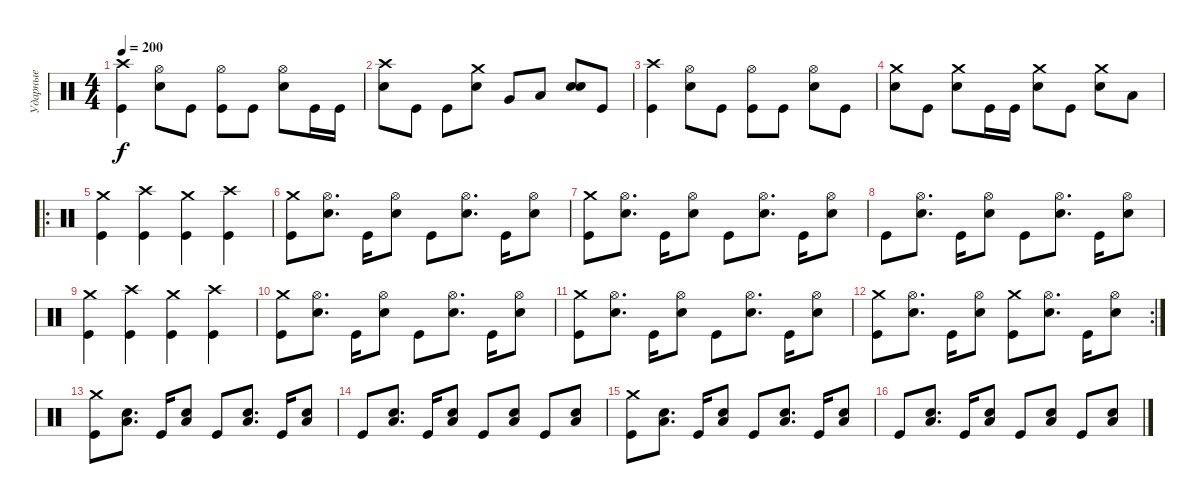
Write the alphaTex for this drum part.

\track ("Ударные" "Ударные") {instrument percussion}
\staff {score}
\articulation defaults
\ts (4 4)
\tempo 200
\clef neutral
\ks c
("Crash high (hit)" "Kick (hit)").4{dy f} ("Hi-Hat (open)" "Snare (hit) 2").8 "Kick (hit)".8 ("Hi-Hat (open)" "Kick (hit)").8 "Kick (hit)".8 ("Hi-Hat (open)" "Snare (hit) 2").8 "Kick (hit)".16 "Kick (hit)".16 |
("Crash high (hit)" "Snare (hit) 2").8 "Kick (hit)".8 "Kick (hit)".8 ("Crash medium (hit)" "Snare (hit) 2").8 "Very Low Tom (hit)".8 "Low Floor Tom (hit)".8 ("Snare (hit) 2" "Snare (hit) 2").8{bd 480} "Kick (hit)".8 |
("Crash high (hit)" "Kick (hit)").4 ("Hi-Hat (open)" "Snare (hit) 2").8 "Kick (hit)".8 ("Hi-Hat (open)" "Kick (hit)").8 "Kick (hit)".8 ("Hi-Hat (open)" "Snare (hit) 2").8 "Kick (hit)".8 |
("Crash medium (hit)" "Snare (hit) 2").8 "Kick (hit)".8 ("Crash medium (hit)" "Snare (hit) 2").8 "Kick (hit)".16 "Kick (hit)".16 ("Crash medium (hit)" "Snare (hit) 2").8 "Kick (hit)".8 ("Crash medium (hit)" "Snare (hit) 2").8 "Low Floor Tom (hit)".8 |
\ro
("Kick (hit)" "Crash medium (hit)").4 ("Kick (hit)" "Crash high (hit)").4 ("Kick (hit)" "Crash medium (hit)").4 ("Kick (hit)" "Crash high (hit)").4 |
("Crash medium (hit)" "Kick (hit)").8 ("Hi-Hat (open)" "Snare (hit) 2").8{d} "Kick (hit)".16 ("Hi-Hat (open)" "Snare (hit) 2").8 "Kick (hit)".8 ("Hi-Hat (open)" "Snare (hit) 2").8{d} "Kick (hit)".16 ("Hi-Hat (open)" "Snare (hit) 2").8 |
("Crash medium (hit)" "Kick (hit)").8 ("Hi-Hat (open)" "Snare (hit) 2").8{d} "Kick (hit)".16 ("Hi-Hat (open)" "Snare (hit) 2").8 "Kick (hit)".8 ("Hi-Hat (open)" "Snare (hit) 2").8{d} "Kick (hit)".16 ("Hi-Hat (open)" "Snare (hit) 2").8 |
"Kick (hit)".8 ("Hi-Hat (open)" "Snare (hit) 2").8{d} "Kick (hit)".16 ("Hi-Hat (open)" "Snare (hit) 2").8 "Kick (hit)".8 ("Hi-Hat (open)" "Snare (hit) 2").8{d} "Kick (hit)".16 ("Hi-Hat (open)" "Snare (hit) 2").8 |
("Kick (hit)" "Crash medium (hit)").4 ("Kick (hit)" "Crash high (hit)").4 ("Kick (hit)" "Crash medium (hit)").4 ("Kick (hit)" "Crash high (hit)").4 |
("Crash medium (hit)" "Kick (hit)").8 ("Hi-Hat (open)" "Snare (hit) 2").8{d} "Kick (hit)".16 ("Hi-Hat (open)" "Snare (hit) 2").8 "Kick (hit)".8 ("Hi-Hat (open)" "Snare (hit) 2").8{d} "Kick (hit)".16 ("Hi-Hat (open)" "Snare (hit) 2").8 |
("Crash medium (hit)" "Kick (hit)").8 ("Hi-Hat (open)" "Snare (hit) 2").8{d} "Kick (hit)".16 ("Hi-Hat (open)" "Snare (hit) 2").8 "Kick (hit)".8 ("Hi-Hat (open)" "Snare (hit) 2").8{d} "Kick (hit)".16 ("Hi-Hat (open)" "Snare (hit) 2").8 |
\rc 2
("Crash medium (hit)" "Kick (hit)").8 ("Hi-Hat (open)" "Snare (hit) 2").8{d} "Kick (hit)".16 ("Hi-Hat (open)" "Snare (hit) 2").8 ("Crash medium (hit)" "Kick (hit)").8 ("Hi-Hat (open)" "Snare (hit) 2").8{d} "Kick (hit)".16 ("Hi-Hat (open)" "Snare (hit) 2").8 |
("Crash medium (hit)" "Kick (hit)").8 ("Low Floor Tom (hit)" "Snare (hit) 2").8{d} "Kick (hit)".16 ("Low Floor Tom (hit)" "Snare (hit) 2").8 "Kick (hit)".8 ("Low Floor Tom (hit)" "Snare (hit) 2").8{d} "Kick (hit)".16 ("Low Floor Tom (hit)" "Snare (hit) 2").8 |
"Kick (hit)".8 ("Low Floor Tom (hit)" "Snare (hit) 2").8{d} "Kick (hit)".16 ("Low Floor Tom (hit)" "Snare (hit) 2").8 "Kick (hit)".8 ("Low Floor Tom (hit)" "Snare (hit) 2").8 "Kick (hit)".8 ("Low Floor Tom (hit)" "Snare (hit) 2").8 |
("Crash medium (hit)" "Kick (hit)").8 ("Low Floor Tom (hit)" "Snare (hit) 2").8{d} "Kick (hit)".16 ("Low Floor Tom (hit)" "Snare (hit) 2").8 "Kick (hit)".8 ("Low Floor Tom (hit)" "Snare (hit) 2").8{d} "Kick (hit)".16 ("Low Floor Tom (hit)" "Snare (hit) 2").8 |
"Kick (hit)".8 ("Low Floor Tom (hit)" "Snare (hit) 2").8{d} "Kick (hit)".16 ("Low Floor Tom (hit)" "Snare (hit) 2").8 "Kick (hit)".8 ("Low Floor Tom (hit)" "Snare (hit) 2").8 "Kick (hit)".8 ("Low Floor Tom (hit)" "Snare (hit) 2").8
